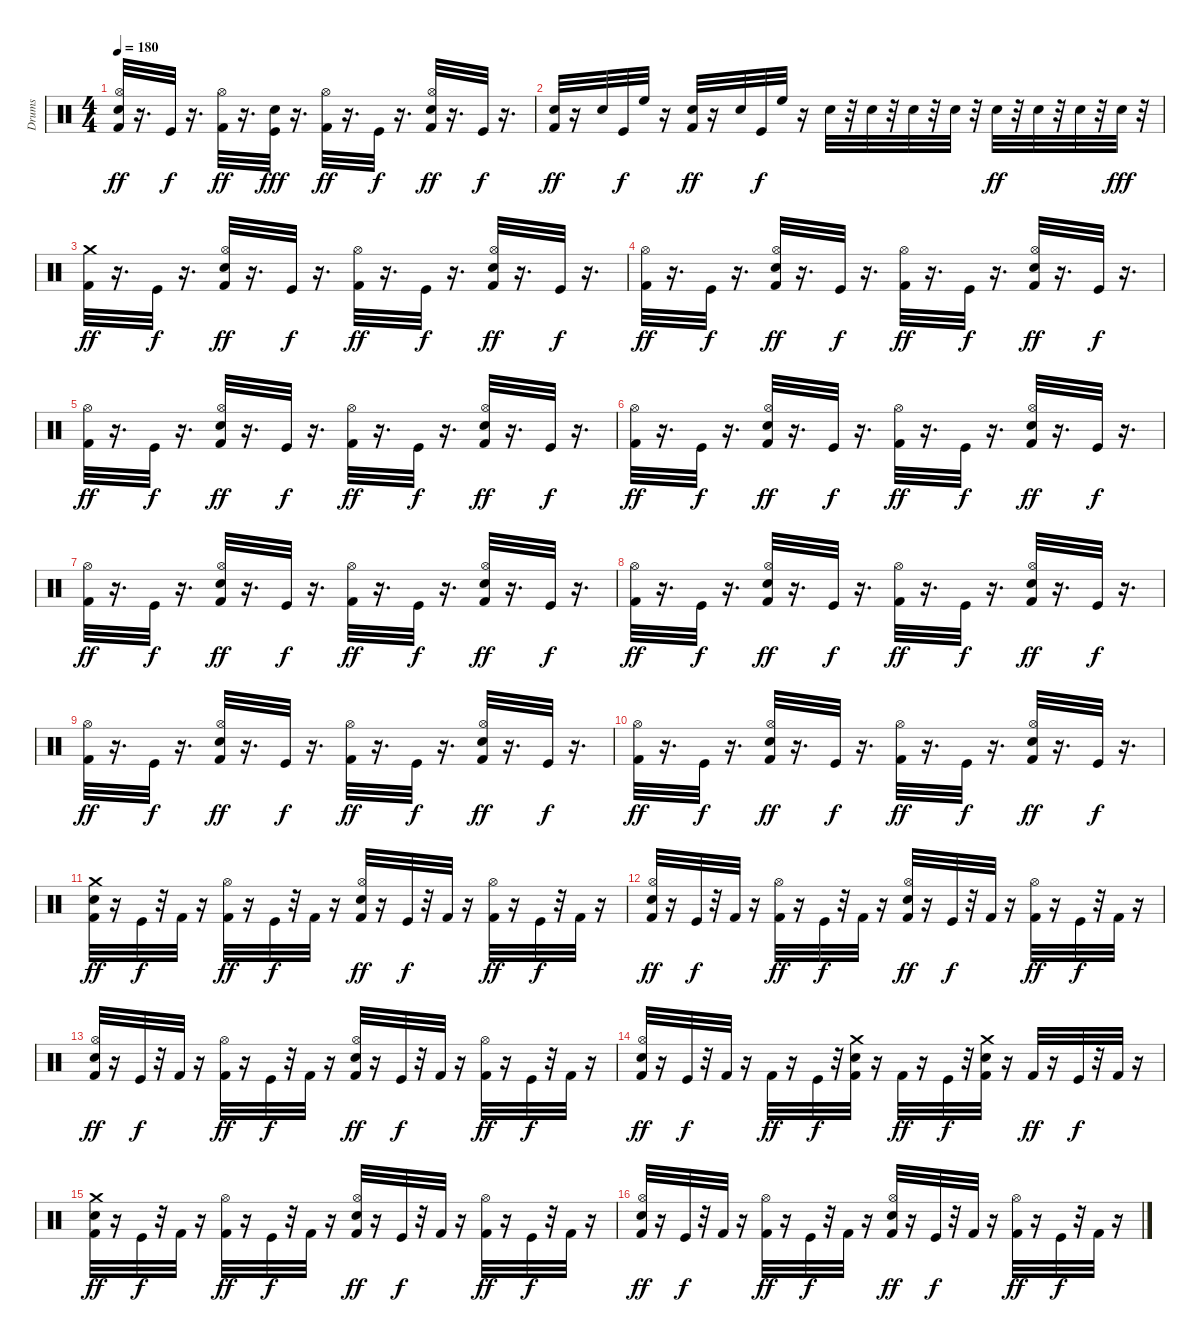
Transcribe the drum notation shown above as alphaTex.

\track ("Drums" "Drums") {instrument percussion}
\staff {score}
\articulation defaults
\ts (4 4)
\tempo 180
\clef neutral
\ks c
("Snare (hit) 2" "Hi-Hat (open)" "Kick (hit) 2").32{dy ff} r.16{d} "Kick (hit)".32{dy f} r.16{d} ("Hi-Hat (open)" "Kick (hit) 2").32{dy ff} r.16{d} ("Snare (hit) 2" "Kick (hit)").32{dy fff} r.16{d} ("Hi-Hat (open)" "Kick (hit) 2").32{dy ff} r.16{d} "Kick (hit)".32{dy f} r.16{d} ("Snare (hit) 2" "Hi-Hat (open)" "Kick (hit) 2").32{dy ff} r.16{d} "Kick (hit)".32{dy f} r.16{d} |
("Snare (hit) 2" "Kick (hit) 2").32{dy ff} r.16 "Snare (hit) 2".32 "Kick (hit)".32{dy f} "High Floor Tom (hit)".32 r.16 ("Snare (hit) 2" "Kick (hit) 2").32{dy ff} r.16 "Snare (hit) 2".32 "Kick (hit)".32{dy f} "High Floor Tom (hit)".32 r.16 "Snare (hit) 2".32 r.32 "Snare (hit) 2".32 r.32 "Snare (hit) 2".32 r.32 "Snare (hit) 2".32 r.32 "Snare (hit) 2".32{dy ff} r.32 "Snare (hit) 2".32 r.32 "Snare (hit) 2".32 r.32 "Snare (hit) 2".32{dy fff} r.32 |
("Crash medium (hit)" "Kick (hit) 2").32{dy ff} r.16{d} "Kick (hit)".32{dy f} r.16{d} ("Snare (hit) 2" "Hi-Hat (open)" "Kick (hit) 2").32{dy ff} r.16{d} "Kick (hit)".32{dy f} r.16{d} ("Hi-Hat (open)" "Kick (hit) 2").32{dy ff} r.16{d} "Kick (hit)".32{dy f} r.16{d} ("Snare (hit) 2" "Hi-Hat (open)" "Kick (hit) 2").32{dy ff} r.16{d} "Kick (hit)".32{dy f} r.16{d} |
("Hi-Hat (open)" "Kick (hit) 2").32{dy ff} r.16{d} "Kick (hit)".32{dy f} r.16{d} ("Snare (hit) 2" "Hi-Hat (open)" "Kick (hit) 2").32{dy ff} r.16{d} "Kick (hit)".32{dy f} r.16{d} ("Hi-Hat (open)" "Kick (hit) 2").32{dy ff} r.16{d} "Kick (hit)".32{dy f} r.16{d} ("Snare (hit) 2" "Hi-Hat (open)" "Kick (hit) 2").32{dy ff} r.16{d} "Kick (hit)".32{dy f} r.16{d} |
("Hi-Hat (open)" "Kick (hit) 2").32{dy ff} r.16{d} "Kick (hit)".32{dy f} r.16{d} ("Snare (hit) 2" "Hi-Hat (open)" "Kick (hit) 2").32{dy ff} r.16{d} "Kick (hit)".32{dy f} r.16{d} ("Hi-Hat (open)" "Kick (hit) 2").32{dy ff} r.16{d} "Kick (hit)".32{dy f} r.16{d} ("Snare (hit) 2" "Hi-Hat (open)" "Kick (hit) 2").32{dy ff} r.16{d} "Kick (hit)".32{dy f} r.16{d} |
("Hi-Hat (open)" "Kick (hit) 2").32{dy ff} r.16{d} "Kick (hit)".32{dy f} r.16{d} ("Snare (hit) 2" "Hi-Hat (open)" "Kick (hit) 2").32{dy ff} r.16{d} "Kick (hit)".32{dy f} r.16{d} ("Hi-Hat (open)" "Kick (hit) 2").32{dy ff} r.16{d} "Kick (hit)".32{dy f} r.16{d} ("Snare (hit) 2" "Hi-Hat (open)" "Kick (hit) 2").32{dy ff} r.16{d} "Kick (hit)".32{dy f} r.16{d} |
("Hi-Hat (open)" "Kick (hit) 2").32{dy ff} r.16{d} "Kick (hit)".32{dy f} r.16{d} ("Snare (hit) 2" "Hi-Hat (open)" "Kick (hit) 2").32{dy ff} r.16{d} "Kick (hit)".32{dy f} r.16{d} ("Hi-Hat (open)" "Kick (hit) 2").32{dy ff} r.16{d} "Kick (hit)".32{dy f} r.16{d} ("Snare (hit) 2" "Hi-Hat (open)" "Kick (hit) 2").32{dy ff} r.16{d} "Kick (hit)".32{dy f} r.16{d} |
("Hi-Hat (open)" "Kick (hit) 2").32{dy ff} r.16{d} "Kick (hit)".32{dy f} r.16{d} ("Snare (hit) 2" "Hi-Hat (open)" "Kick (hit) 2").32{dy ff} r.16{d} "Kick (hit)".32{dy f} r.16{d} ("Hi-Hat (open)" "Kick (hit) 2").32{dy ff} r.16{d} "Kick (hit)".32{dy f} r.16{d} ("Snare (hit) 2" "Hi-Hat (open)" "Kick (hit) 2").32{dy ff} r.16{d} "Kick (hit)".32{dy f} r.16{d} |
("Hi-Hat (open)" "Kick (hit) 2").32{dy ff} r.16{d} "Kick (hit)".32{dy f} r.16{d} ("Snare (hit) 2" "Hi-Hat (open)" "Kick (hit) 2").32{dy ff} r.16{d} "Kick (hit)".32{dy f} r.16{d} ("Hi-Hat (open)" "Kick (hit) 2").32{dy ff} r.16{d} "Kick (hit)".32{dy f} r.16{d} ("Snare (hit) 2" "Hi-Hat (open)" "Kick (hit) 2").32{dy ff} r.16{d} "Kick (hit)".32{dy f} r.16{d} |
("Hi-Hat (open)" "Kick (hit) 2").32{dy ff} r.16{d} "Kick (hit)".32{dy f} r.16{d} ("Snare (hit) 2" "Hi-Hat (open)" "Kick (hit) 2").32{dy ff} r.16{d} "Kick (hit)".32{dy f} r.16{d} ("Hi-Hat (open)" "Kick (hit) 2").32{dy ff} r.16{d} "Kick (hit)".32{dy f} r.16{d} ("Snare (hit) 2" "Hi-Hat (open)" "Kick (hit) 2").32{dy ff} r.16{d} "Kick (hit)".32{dy f} r.16{d} |
("Snare (hit) 2" "Crash medium (hit)" "Kick (hit) 2").32{dy ff} r.16 "Kick (hit)".32{dy f} r.32 "Kick (hit) 2".32 r.16 ("Hi-Hat (open)" "Kick (hit) 2").32{dy ff} r.16 "Kick (hit)".32{dy f} r.32 "Kick (hit) 2".32 r.16 ("Snare (hit) 2" "Hi-Hat (open)" "Kick (hit) 2").32{dy ff} r.16 "Kick (hit)".32{dy f} r.32 "Kick (hit) 2".32 r.16 ("Hi-Hat (open)" "Kick (hit) 2").32{dy ff} r.16 "Kick (hit)".32{dy f} r.32 "Kick (hit) 2".32 r.16 |
("Snare (hit) 2" "Hi-Hat (open)" "Kick (hit) 2").32{dy ff} r.16 "Kick (hit)".32{dy f} r.32 "Kick (hit) 2".32 r.16 ("Hi-Hat (open)" "Kick (hit) 2").32{dy ff} r.16 "Kick (hit)".32{dy f} r.32 "Kick (hit) 2".32 r.16 ("Snare (hit) 2" "Hi-Hat (open)" "Kick (hit) 2").32{dy ff} r.16 "Kick (hit)".32{dy f} r.32 "Kick (hit) 2".32 r.16 ("Hi-Hat (open)" "Kick (hit) 2").32{dy ff} r.16 "Kick (hit)".32{dy f} r.32 "Kick (hit) 2".32 r.16 |
("Snare (hit) 2" "Hi-Hat (open)" "Kick (hit) 2").32{dy ff} r.16 "Kick (hit)".32{dy f} r.32 "Kick (hit) 2".32 r.16 ("Hi-Hat (open)" "Kick (hit) 2").32{dy ff} r.16 "Kick (hit)".32{dy f} r.32 "Kick (hit) 2".32 r.16 ("Snare (hit) 2" "Hi-Hat (open)" "Kick (hit) 2").32{dy ff} r.16 "Kick (hit)".32{dy f} r.32 "Kick (hit) 2".32 r.16 ("Hi-Hat (open)" "Kick (hit) 2").32{dy ff} r.16 "Kick (hit)".32{dy f} r.32 "Kick (hit) 2".32 r.16 |
("Snare (hit) 2" "Hi-Hat (open)" "Kick (hit) 2").32{dy ff} r.16 "Kick (hit)".32{dy f} r.32 "Kick (hit) 2".32 r.16 "Kick (hit) 2".32{dy ff} r.16 "Kick (hit)".32{dy f} r.32 ("Crash medium (hit)" "Snare (hit) 2" "Kick (hit) 2").32 r.16 "Kick (hit) 2".32{dy ff} r.16 "Kick (hit)".32{dy f} r.32 ("Crash medium (hit)" "Snare (hit) 2" "Kick (hit) 2").32 r.16 "Kick (hit) 2".32{dy ff} r.16 "Kick (hit)".32{dy f} r.32 "Kick (hit) 2".32 r.16 |
("Snare (hit) 2" "Crash medium (hit)" "Kick (hit) 2").32{dy ff} r.16 "Kick (hit)".32{dy f} r.32 "Kick (hit) 2".32 r.16 ("Hi-Hat (open)" "Kick (hit) 2").32{dy ff} r.16 "Kick (hit)".32{dy f} r.32 "Kick (hit) 2".32 r.16 ("Snare (hit) 2" "Hi-Hat (open)" "Kick (hit) 2").32{dy ff} r.16 "Kick (hit)".32{dy f} r.32 "Kick (hit) 2".32 r.16 ("Hi-Hat (open)" "Kick (hit) 2").32{dy ff} r.16 "Kick (hit)".32{dy f} r.32 "Kick (hit) 2".32 r.16 |
("Snare (hit) 2" "Hi-Hat (open)" "Kick (hit) 2").32{dy ff} r.16 "Kick (hit)".32{dy f} r.32 "Kick (hit) 2".32 r.16 ("Hi-Hat (open)" "Kick (hit) 2").32{dy ff} r.16 "Kick (hit)".32{dy f} r.32 "Kick (hit) 2".32 r.16 ("Snare (hit) 2" "Hi-Hat (open)" "Kick (hit) 2").32{dy ff} r.16 "Kick (hit)".32{dy f} r.32 "Kick (hit) 2".32 r.16 ("Hi-Hat (open)" "Kick (hit) 2").32{dy ff} r.16 "Kick (hit)".32{dy f} r.32 "Kick (hit) 2".32 r.16
